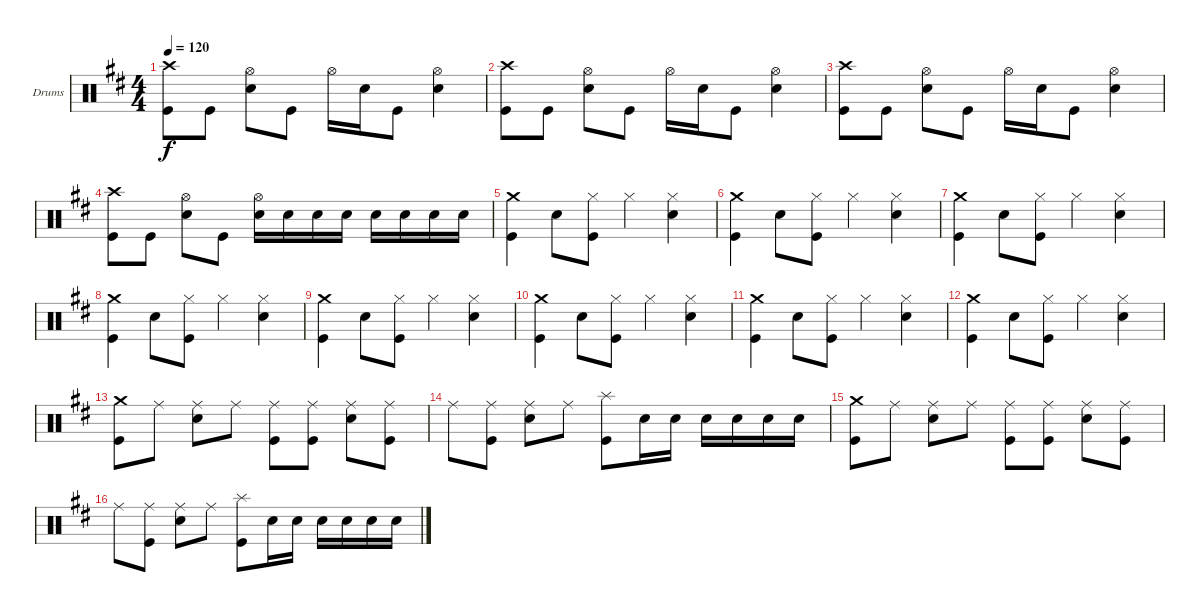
\defaultSystemsLayout 4
\bracketExtendMode groupsimilarinstruments
\firstSystemTrackNameOrientation horizontal
\otherSystemsTrackNameOrientation horizontal
\track ("Drumkit" "Drums") {instrument percussion}
\staff {score}
\articulation defaults
\ts (4 4)
\tempo 120
\clef neutral
\scale
0.949559
\ks d
("Crash high (hit)" "Kick (hit)").8{dy f} "Kick (hit)".8 ("Hi-Hat (open)" "Snare (hit) 2").8 "Kick (hit)".8 "Hi-Hat (open)".16 "Snare (hit) 2".16 "Kick (hit)".8 ("Hi-Hat (open)" "Snare (hit) 2").4 |
\scale
1.10088 ("Crash high (hit)" "Kick (hit)").8 "Kick (hit)".8 ("Hi-Hat (open)" "Snare (hit) 2").8 "Kick (hit)".8 "Hi-Hat (open)".16 "Snare (hit) 2".16 "Kick (hit)".8 ("Hi-Hat (open)" "Snare (hit) 2").4 |
\scale
0.949559 ("Crash high (hit)" "Kick (hit)").8 "Kick (hit)".8 ("Hi-Hat (open)" "Snare (hit) 2").8 "Kick (hit)".8 "Hi-Hat (open)".16 "Snare (hit) 2".16 "Kick (hit)".8 ("Hi-Hat (open)" "Snare (hit) 2").4 |
\scale
0.949559 ("Crash high (hit)" "Kick (hit)").8 "Kick (hit)".8 ("Hi-Hat (open)" "Snare (hit) 2").8 "Kick (hit)".8 ("Hi-Hat (open)" "Snare (hit) 2").16 "Snare (hit) 2".16 "Snare (hit) 2".16 "Snare (hit) 2".16 "Snare (hit) 2".16 "Snare (hit) 2".16 "Snare (hit) 2".16 "Snare (hit) 2".16 |
\scale
1.10088 ("Crash medium (hit)" "Kick (hit)").4 "Snare (hit) 2".8 ("Hi-Hat (closed)" "Kick (hit)").8 "Hi-Hat (closed)".4 ("Hi-Hat (closed)" "Snare (hit) 2").4 |
\scale
0.949559 ("Crash medium (hit)" "Kick (hit)").4 "Snare (hit) 2".8 ("Hi-Hat (closed)" "Kick (hit)").8 "Hi-Hat (closed)".4 ("Hi-Hat (closed)" "Snare (hit) 2").4 |
\scale
0.949559 ("Crash medium (hit)" "Kick (hit)").4 "Snare (hit) 2".8 ("Hi-Hat (closed)" "Kick (hit)").8 "Hi-Hat (closed)".4 ("Hi-Hat (closed)" "Snare (hit) 2").4 |
\scale
1.10088 ("Crash medium (hit)" "Kick (hit)").4 "Snare (hit) 2".8 ("Hi-Hat (closed)" "Kick (hit)").8 "Hi-Hat (closed)".4 ("Hi-Hat (closed)" "Snare (hit) 2").4 |
\scale
0.949559 ("Crash medium (hit)" "Kick (hit)").4 "Snare (hit) 2".8 ("Hi-Hat (closed)" "Kick (hit)").8 "Hi-Hat (closed)".4 ("Hi-Hat (closed)" "Snare (hit) 2").4 |
\scale
0.949559 ("Crash medium (hit)" "Kick (hit)").4 "Snare (hit) 2".8 ("Hi-Hat (closed)" "Kick (hit)").8 "Hi-Hat (closed)".4 ("Hi-Hat (closed)" "Snare (hit) 2").4 |
\scale
1.10088 ("Crash medium (hit)" "Kick (hit)").4 "Snare (hit) 2".8 ("Hi-Hat (closed)" "Kick (hit)").8 "Hi-Hat (closed)".4 ("Hi-Hat (closed)" "Snare (hit) 2").4 |
\scale
0.949559 ("Crash medium (hit)" "Kick (hit)").4 "Snare (hit) 2".8 ("Hi-Hat (closed)" "Kick (hit)").8 "Hi-Hat (closed)".4 ("Hi-Hat (closed)" "Snare (hit) 2").4 |
\scale
0.949559 ("Crash medium (hit)" "Kick (hit)").8 "Ride (middle)".8 ("Ride (middle)" "Snare (hit) 2").8 "Ride (middle)".8 ("Ride (middle)" "Kick (hit)").8 ("Ride (middle)" "Kick (hit)").8 ("Ride (middle)" "Snare (hit) 2").8 ("Ride (middle)" "Kick (hit)").8 |
\scale
1.10088 "Ride (middle)".8 ("Ride (middle)" "Kick (hit)").8 ("Ride (middle)" "Snare (hit) 2").8 "Ride (middle)".8 ("Splash (hit)" "Kick (hit)").8 "Snare (hit) 2".16 "Snare (hit) 2".16 "Snare (hit) 2".16 "Snare (hit) 2".16 "Snare (hit) 2".16 "Snare (hit) 2".16 |
\scale
0.949559 ("Crash medium (hit)" "Kick (hit)").8 "Ride (middle)".8 ("Ride (middle)" "Snare (hit) 2").8 "Ride (middle)".8 ("Ride (middle)" "Kick (hit)").8 ("Ride (middle)" "Kick (hit)").8 ("Ride (middle)" "Snare (hit) 2").8 ("Ride (middle)" "Kick (hit)").8 |
\scale
0.949559 "Ride (middle)".8 ("Ride (middle)" "Kick (hit)").8 ("Ride (middle)" "Snare (hit) 2").8 "Ride (middle)".8 ("Splash (hit)" "Kick (hit)").8 "Snare (hit) 2".16 "Snare (hit) 2".16 "Snare (hit) 2".16 "Snare (hit) 2".16 "Snare (hit) 2".16 "Snare (hit) 2".16
